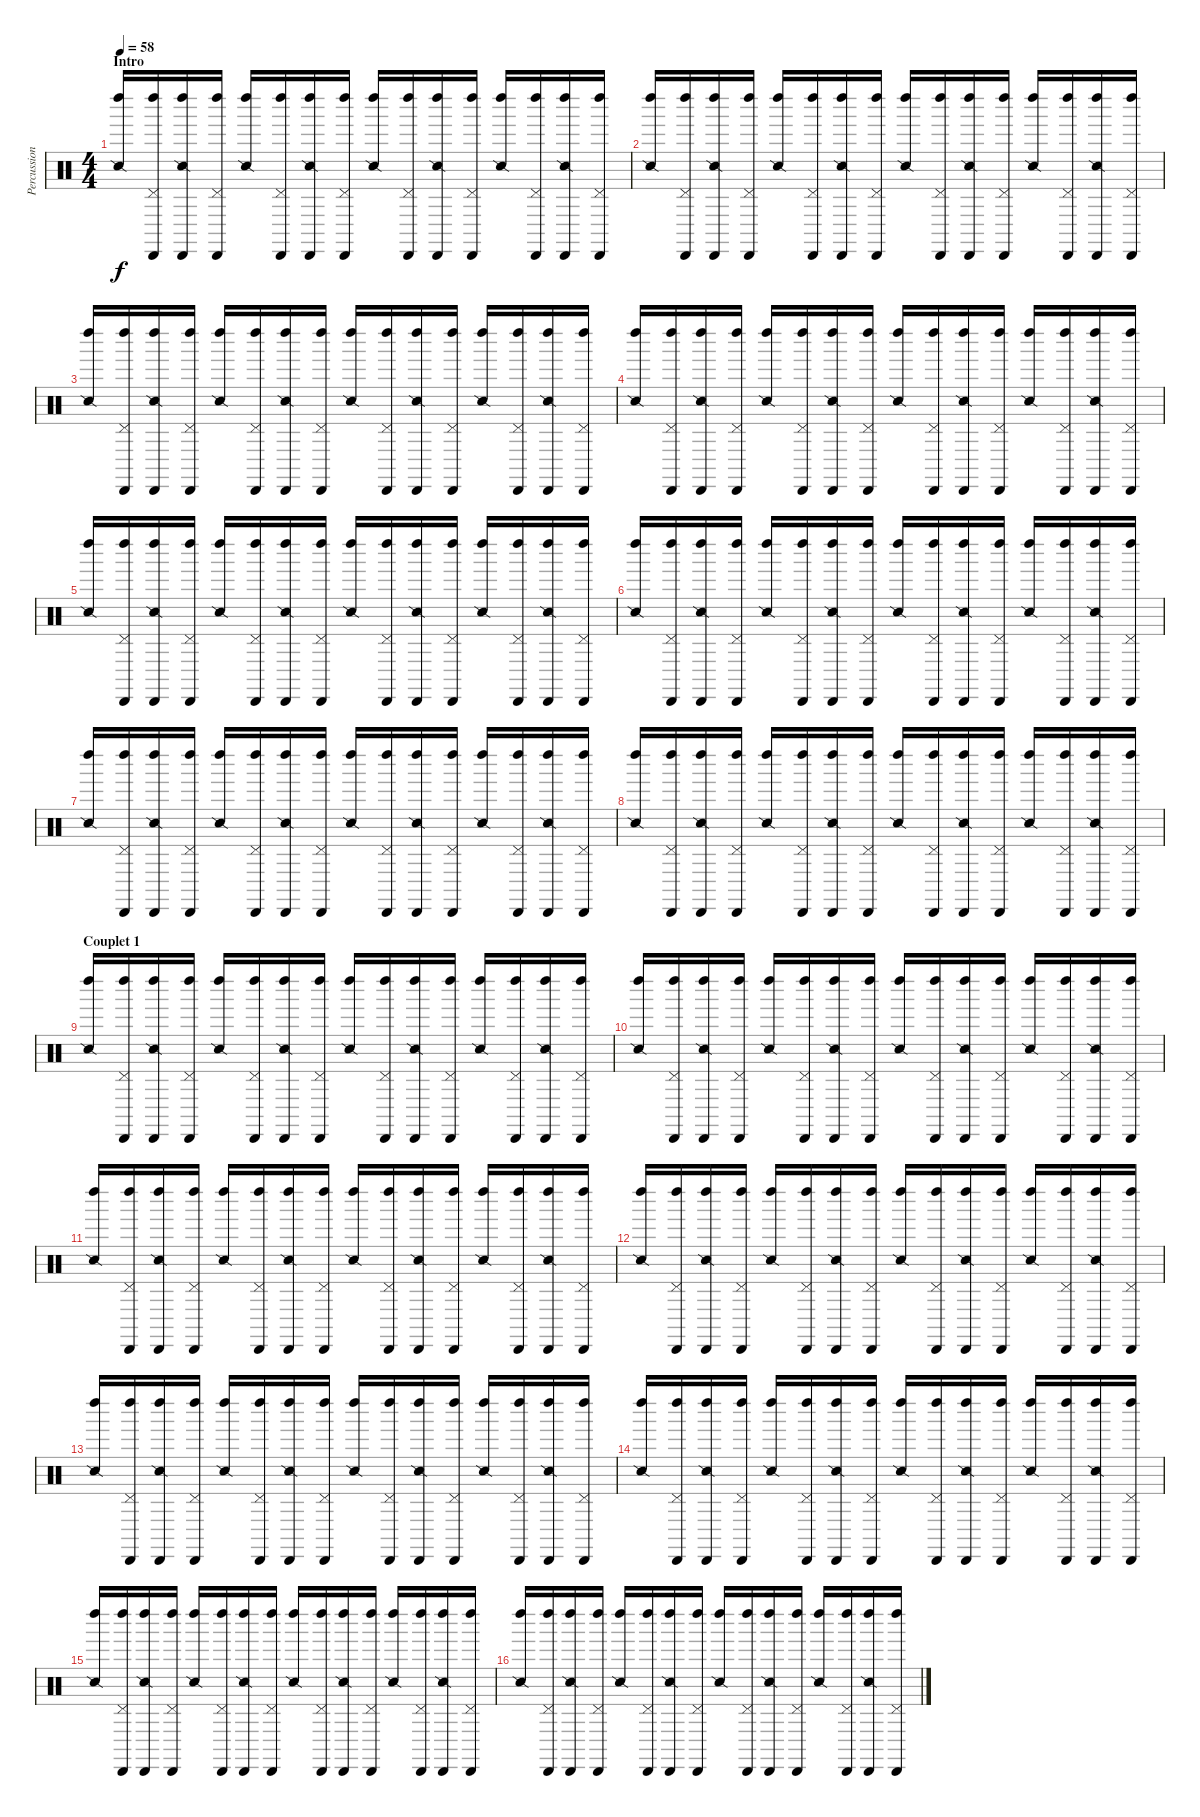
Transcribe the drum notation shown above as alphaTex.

\track ("Percussions" "Percussion") {instrument percussion}
\staff {score}
\articulation defaults
\ts (4 4)
\section ("" "Intro")
\tempo 58
\clef neutral
\ks c
("Snare (side stick) 2" "Left Maraca (hit)").16{dy f} ("Cabasa (hit)" "Pedal Hi-Hat (hit)" "Left Maraca (hit)").16 ("Cabasa (hit)" "Snare (side stick) 2" "Left Maraca (hit)").16 ("Cabasa (hit)" "Pedal Hi-Hat (hit)" "Left Maraca (hit)").16 ("Snare (side stick) 2" "Left Maraca (hit)").16 ("Cabasa (hit)" "Pedal Hi-Hat (hit)" "Left Maraca (hit)").16 ("Cabasa (hit)" "Snare (side stick) 2" "Left Maraca (hit)").16 ("Cabasa (hit)" "Pedal Hi-Hat (hit)" "Left Maraca (hit)").16 ("Snare (side stick) 2" "Left Maraca (hit)").16 ("Cabasa (hit)" "Pedal Hi-Hat (hit)" "Left Maraca (hit)").16 ("Cabasa (hit)" "Snare (side stick) 2" "Left Maraca (hit)").16 ("Cabasa (hit)" "Pedal Hi-Hat (hit)" "Left Maraca (hit)").16 ("Snare (side stick) 2" "Left Maraca (hit)").16 ("Cabasa (hit)" "Pedal Hi-Hat (hit)" "Left Maraca (hit)").16 ("Cabasa (hit)" "Snare (side stick) 2" "Left Maraca (hit)").16 ("Cabasa (hit)" "Pedal Hi-Hat (hit)" "Left Maraca (hit)").16 |
("Snare (side stick) 2" "Left Maraca (hit)").16 ("Cabasa (hit)" "Pedal Hi-Hat (hit)" "Left Maraca (hit)").16 ("Cabasa (hit)" "Snare (side stick) 2" "Left Maraca (hit)").16 ("Cabasa (hit)" "Pedal Hi-Hat (hit)" "Left Maraca (hit)").16 ("Snare (side stick) 2" "Left Maraca (hit)").16 ("Cabasa (hit)" "Pedal Hi-Hat (hit)" "Left Maraca (hit)").16 ("Cabasa (hit)" "Snare (side stick) 2" "Left Maraca (hit)").16 ("Cabasa (hit)" "Pedal Hi-Hat (hit)" "Left Maraca (hit)").16 ("Snare (side stick) 2" "Left Maraca (hit)").16 ("Cabasa (hit)" "Pedal Hi-Hat (hit)" "Left Maraca (hit)").16 ("Cabasa (hit)" "Snare (side stick) 2" "Left Maraca (hit)").16 ("Cabasa (hit)" "Pedal Hi-Hat (hit)" "Left Maraca (hit)").16 ("Snare (side stick) 2" "Left Maraca (hit)").16 ("Cabasa (hit)" "Pedal Hi-Hat (hit)" "Left Maraca (hit)").16 ("Cabasa (hit)" "Snare (side stick) 2" "Left Maraca (hit)").16 ("Cabasa (hit)" "Pedal Hi-Hat (hit)" "Left Maraca (hit)").16 |
("Snare (side stick) 2" "Left Maraca (hit)").16 ("Cabasa (hit)" "Pedal Hi-Hat (hit)" "Left Maraca (hit)").16 ("Cabasa (hit)" "Snare (side stick) 2" "Left Maraca (hit)").16 ("Cabasa (hit)" "Pedal Hi-Hat (hit)" "Left Maraca (hit)").16 ("Snare (side stick) 2" "Left Maraca (hit)").16 ("Cabasa (hit)" "Pedal Hi-Hat (hit)" "Left Maraca (hit)").16 ("Cabasa (hit)" "Snare (side stick) 2" "Left Maraca (hit)").16 ("Cabasa (hit)" "Pedal Hi-Hat (hit)" "Left Maraca (hit)").16 ("Snare (side stick) 2" "Left Maraca (hit)").16 ("Cabasa (hit)" "Pedal Hi-Hat (hit)" "Left Maraca (hit)").16 ("Cabasa (hit)" "Snare (side stick) 2" "Left Maraca (hit)").16 ("Cabasa (hit)" "Pedal Hi-Hat (hit)" "Left Maraca (hit)").16 ("Snare (side stick) 2" "Left Maraca (hit)").16 ("Cabasa (hit)" "Pedal Hi-Hat (hit)" "Left Maraca (hit)").16 ("Cabasa (hit)" "Snare (side stick) 2" "Left Maraca (hit)").16 ("Cabasa (hit)" "Pedal Hi-Hat (hit)" "Left Maraca (hit)").16 |
("Snare (side stick) 2" "Left Maraca (hit)").16 ("Cabasa (hit)" "Pedal Hi-Hat (hit)" "Left Maraca (hit)").16 ("Cabasa (hit)" "Snare (side stick) 2" "Left Maraca (hit)").16 ("Cabasa (hit)" "Pedal Hi-Hat (hit)" "Left Maraca (hit)").16 ("Snare (side stick) 2" "Left Maraca (hit)").16 ("Cabasa (hit)" "Pedal Hi-Hat (hit)" "Left Maraca (hit)").16 ("Cabasa (hit)" "Snare (side stick) 2" "Left Maraca (hit)").16 ("Cabasa (hit)" "Pedal Hi-Hat (hit)" "Left Maraca (hit)").16 ("Snare (side stick) 2" "Left Maraca (hit)").16 ("Cabasa (hit)" "Pedal Hi-Hat (hit)" "Left Maraca (hit)").16 ("Cabasa (hit)" "Snare (side stick) 2" "Left Maraca (hit)").16 ("Cabasa (hit)" "Pedal Hi-Hat (hit)" "Left Maraca (hit)").16 ("Snare (side stick) 2" "Left Maraca (hit)").16 ("Cabasa (hit)" "Pedal Hi-Hat (hit)" "Left Maraca (hit)").16 ("Cabasa (hit)" "Snare (side stick) 2" "Left Maraca (hit)").16 ("Cabasa (hit)" "Pedal Hi-Hat (hit)" "Left Maraca (hit)").16 |
("Snare (side stick) 2" "Left Maraca (hit)").16 ("Cabasa (hit)" "Pedal Hi-Hat (hit)" "Left Maraca (hit)").16 ("Cabasa (hit)" "Snare (side stick) 2" "Left Maraca (hit)").16 ("Cabasa (hit)" "Pedal Hi-Hat (hit)" "Left Maraca (hit)").16 ("Snare (side stick) 2" "Left Maraca (hit)").16 ("Cabasa (hit)" "Pedal Hi-Hat (hit)" "Left Maraca (hit)").16 ("Cabasa (hit)" "Snare (side stick) 2" "Left Maraca (hit)").16 ("Cabasa (hit)" "Pedal Hi-Hat (hit)" "Left Maraca (hit)").16 ("Snare (side stick) 2" "Left Maraca (hit)").16 ("Cabasa (hit)" "Pedal Hi-Hat (hit)" "Left Maraca (hit)").16 ("Cabasa (hit)" "Snare (side stick) 2" "Left Maraca (hit)").16 ("Cabasa (hit)" "Pedal Hi-Hat (hit)" "Left Maraca (hit)").16 ("Snare (side stick) 2" "Left Maraca (hit)").16 ("Cabasa (hit)" "Pedal Hi-Hat (hit)" "Left Maraca (hit)").16 ("Cabasa (hit)" "Snare (side stick) 2" "Left Maraca (hit)").16 ("Cabasa (hit)" "Pedal Hi-Hat (hit)" "Left Maraca (hit)").16 |
("Snare (side stick) 2" "Left Maraca (hit)").16 ("Cabasa (hit)" "Pedal Hi-Hat (hit)" "Left Maraca (hit)").16 ("Cabasa (hit)" "Snare (side stick) 2" "Left Maraca (hit)").16 ("Cabasa (hit)" "Pedal Hi-Hat (hit)" "Left Maraca (hit)").16 ("Snare (side stick) 2" "Left Maraca (hit)").16 ("Cabasa (hit)" "Pedal Hi-Hat (hit)" "Left Maraca (hit)").16 ("Cabasa (hit)" "Snare (side stick) 2" "Left Maraca (hit)").16 ("Cabasa (hit)" "Pedal Hi-Hat (hit)" "Left Maraca (hit)").16 ("Snare (side stick) 2" "Left Maraca (hit)").16 ("Cabasa (hit)" "Pedal Hi-Hat (hit)" "Left Maraca (hit)").16 ("Cabasa (hit)" "Snare (side stick) 2" "Left Maraca (hit)").16 ("Cabasa (hit)" "Pedal Hi-Hat (hit)" "Left Maraca (hit)").16 ("Snare (side stick) 2" "Left Maraca (hit)").16 ("Cabasa (hit)" "Pedal Hi-Hat (hit)" "Left Maraca (hit)").16 ("Cabasa (hit)" "Snare (side stick) 2" "Left Maraca (hit)").16 ("Cabasa (hit)" "Pedal Hi-Hat (hit)" "Left Maraca (hit)").16 |
("Snare (side stick) 2" "Left Maraca (hit)").16 ("Cabasa (hit)" "Pedal Hi-Hat (hit)" "Left Maraca (hit)").16 ("Cabasa (hit)" "Snare (side stick) 2" "Left Maraca (hit)").16 ("Cabasa (hit)" "Pedal Hi-Hat (hit)" "Left Maraca (hit)").16 ("Snare (side stick) 2" "Left Maraca (hit)").16 ("Cabasa (hit)" "Pedal Hi-Hat (hit)" "Left Maraca (hit)").16 ("Cabasa (hit)" "Snare (side stick) 2" "Left Maraca (hit)").16 ("Cabasa (hit)" "Pedal Hi-Hat (hit)" "Left Maraca (hit)").16 ("Snare (side stick) 2" "Left Maraca (hit)").16 ("Cabasa (hit)" "Pedal Hi-Hat (hit)" "Left Maraca (hit)").16 ("Cabasa (hit)" "Snare (side stick) 2" "Left Maraca (hit)").16 ("Cabasa (hit)" "Pedal Hi-Hat (hit)" "Left Maraca (hit)").16 ("Snare (side stick) 2" "Left Maraca (hit)").16 ("Cabasa (hit)" "Pedal Hi-Hat (hit)" "Left Maraca (hit)").16 ("Cabasa (hit)" "Snare (side stick) 2" "Left Maraca (hit)").16 ("Cabasa (hit)" "Pedal Hi-Hat (hit)" "Left Maraca (hit)").16 |
("Snare (side stick) 2" "Left Maraca (hit)").16 ("Cabasa (hit)" "Pedal Hi-Hat (hit)" "Left Maraca (hit)").16 ("Cabasa (hit)" "Snare (side stick) 2" "Left Maraca (hit)").16 ("Cabasa (hit)" "Pedal Hi-Hat (hit)" "Left Maraca (hit)").16 ("Snare (side stick) 2" "Left Maraca (hit)").16 ("Cabasa (hit)" "Pedal Hi-Hat (hit)" "Left Maraca (hit)").16 ("Cabasa (hit)" "Snare (side stick) 2" "Left Maraca (hit)").16 ("Cabasa (hit)" "Pedal Hi-Hat (hit)" "Left Maraca (hit)").16 ("Snare (side stick) 2" "Left Maraca (hit)").16 ("Cabasa (hit)" "Pedal Hi-Hat (hit)" "Left Maraca (hit)").16 ("Cabasa (hit)" "Snare (side stick) 2" "Left Maraca (hit)").16 ("Cabasa (hit)" "Pedal Hi-Hat (hit)" "Left Maraca (hit)").16 ("Snare (side stick) 2" "Left Maraca (hit)").16 ("Cabasa (hit)" "Pedal Hi-Hat (hit)" "Left Maraca (hit)").16 ("Cabasa (hit)" "Snare (side stick) 2" "Left Maraca (hit)").16 ("Cabasa (hit)" "Pedal Hi-Hat (hit)" "Left Maraca (hit)").16 |
\section ("" "Couplet 1")
("Snare (side stick) 2" "Left Maraca (hit)").16 ("Cabasa (hit)" "Pedal Hi-Hat (hit)" "Left Maraca (hit)").16 ("Cabasa (hit)" "Snare (side stick) 2" "Left Maraca (hit)").16 ("Cabasa (hit)" "Pedal Hi-Hat (hit)" "Left Maraca (hit)").16 ("Snare (side stick) 2" "Left Maraca (hit)").16 ("Cabasa (hit)" "Pedal Hi-Hat (hit)" "Left Maraca (hit)").16 ("Cabasa (hit)" "Snare (side stick) 2" "Left Maraca (hit)").16 ("Cabasa (hit)" "Pedal Hi-Hat (hit)" "Left Maraca (hit)").16 ("Snare (side stick) 2" "Left Maraca (hit)").16 ("Cabasa (hit)" "Pedal Hi-Hat (hit)" "Left Maraca (hit)").16 ("Cabasa (hit)" "Snare (side stick) 2" "Left Maraca (hit)").16 ("Cabasa (hit)" "Pedal Hi-Hat (hit)" "Left Maraca (hit)").16 ("Snare (side stick) 2" "Left Maraca (hit)").16 ("Cabasa (hit)" "Pedal Hi-Hat (hit)" "Left Maraca (hit)").16 ("Cabasa (hit)" "Snare (side stick) 2" "Left Maraca (hit)").16 ("Cabasa (hit)" "Pedal Hi-Hat (hit)" "Left Maraca (hit)").16 |
("Snare (side stick) 2" "Left Maraca (hit)").16 ("Cabasa (hit)" "Pedal Hi-Hat (hit)" "Left Maraca (hit)").16 ("Cabasa (hit)" "Snare (side stick) 2" "Left Maraca (hit)").16 ("Cabasa (hit)" "Pedal Hi-Hat (hit)" "Left Maraca (hit)").16 ("Snare (side stick) 2" "Left Maraca (hit)").16 ("Cabasa (hit)" "Pedal Hi-Hat (hit)" "Left Maraca (hit)").16 ("Cabasa (hit)" "Snare (side stick) 2" "Left Maraca (hit)").16 ("Cabasa (hit)" "Pedal Hi-Hat (hit)" "Left Maraca (hit)").16 ("Snare (side stick) 2" "Left Maraca (hit)").16 ("Cabasa (hit)" "Pedal Hi-Hat (hit)" "Left Maraca (hit)").16 ("Cabasa (hit)" "Snare (side stick) 2" "Left Maraca (hit)").16 ("Cabasa (hit)" "Pedal Hi-Hat (hit)" "Left Maraca (hit)").16 ("Snare (side stick) 2" "Left Maraca (hit)").16 ("Cabasa (hit)" "Pedal Hi-Hat (hit)" "Left Maraca (hit)").16 ("Cabasa (hit)" "Snare (side stick) 2" "Left Maraca (hit)").16 ("Cabasa (hit)" "Pedal Hi-Hat (hit)" "Left Maraca (hit)").16 |
("Snare (side stick) 2" "Left Maraca (hit)").16 ("Cabasa (hit)" "Pedal Hi-Hat (hit)" "Left Maraca (hit)").16 ("Cabasa (hit)" "Snare (side stick) 2" "Left Maraca (hit)").16 ("Cabasa (hit)" "Pedal Hi-Hat (hit)" "Left Maraca (hit)").16 ("Snare (side stick) 2" "Left Maraca (hit)").16 ("Cabasa (hit)" "Pedal Hi-Hat (hit)" "Left Maraca (hit)").16 ("Cabasa (hit)" "Snare (side stick) 2" "Left Maraca (hit)").16 ("Cabasa (hit)" "Pedal Hi-Hat (hit)" "Left Maraca (hit)").16 ("Snare (side stick) 2" "Left Maraca (hit)").16 ("Cabasa (hit)" "Pedal Hi-Hat (hit)" "Left Maraca (hit)").16 ("Cabasa (hit)" "Snare (side stick) 2" "Left Maraca (hit)").16 ("Cabasa (hit)" "Pedal Hi-Hat (hit)" "Left Maraca (hit)").16 ("Snare (side stick) 2" "Left Maraca (hit)").16 ("Cabasa (hit)" "Pedal Hi-Hat (hit)" "Left Maraca (hit)").16 ("Cabasa (hit)" "Snare (side stick) 2" "Left Maraca (hit)").16 ("Cabasa (hit)" "Pedal Hi-Hat (hit)" "Left Maraca (hit)").16 |
("Snare (side stick) 2" "Left Maraca (hit)").16 ("Cabasa (hit)" "Pedal Hi-Hat (hit)" "Left Maraca (hit)").16 ("Cabasa (hit)" "Snare (side stick) 2" "Left Maraca (hit)").16 ("Cabasa (hit)" "Pedal Hi-Hat (hit)" "Left Maraca (hit)").16 ("Snare (side stick) 2" "Left Maraca (hit)").16 ("Cabasa (hit)" "Pedal Hi-Hat (hit)" "Left Maraca (hit)").16 ("Cabasa (hit)" "Snare (side stick) 2" "Left Maraca (hit)").16 ("Cabasa (hit)" "Pedal Hi-Hat (hit)" "Left Maraca (hit)").16 ("Snare (side stick) 2" "Left Maraca (hit)").16 ("Cabasa (hit)" "Pedal Hi-Hat (hit)" "Left Maraca (hit)").16 ("Cabasa (hit)" "Snare (side stick) 2" "Left Maraca (hit)").16 ("Cabasa (hit)" "Pedal Hi-Hat (hit)" "Left Maraca (hit)").16 ("Snare (side stick) 2" "Left Maraca (hit)").16 ("Cabasa (hit)" "Pedal Hi-Hat (hit)" "Left Maraca (hit)").16 ("Cabasa (hit)" "Snare (side stick) 2" "Left Maraca (hit)").16 ("Cabasa (hit)" "Pedal Hi-Hat (hit)" "Left Maraca (hit)").16 |
("Snare (side stick) 2" "Left Maraca (hit)").16 ("Cabasa (hit)" "Pedal Hi-Hat (hit)" "Left Maraca (hit)").16 ("Cabasa (hit)" "Snare (side stick) 2" "Left Maraca (hit)").16 ("Cabasa (hit)" "Pedal Hi-Hat (hit)" "Left Maraca (hit)").16 ("Snare (side stick) 2" "Left Maraca (hit)").16 ("Cabasa (hit)" "Pedal Hi-Hat (hit)" "Left Maraca (hit)").16 ("Cabasa (hit)" "Snare (side stick) 2" "Left Maraca (hit)").16 ("Cabasa (hit)" "Pedal Hi-Hat (hit)" "Left Maraca (hit)").16 ("Snare (side stick) 2" "Left Maraca (hit)").16 ("Cabasa (hit)" "Pedal Hi-Hat (hit)" "Left Maraca (hit)").16 ("Cabasa (hit)" "Snare (side stick) 2" "Left Maraca (hit)").16 ("Cabasa (hit)" "Pedal Hi-Hat (hit)" "Left Maraca (hit)").16 ("Snare (side stick) 2" "Left Maraca (hit)").16 ("Cabasa (hit)" "Pedal Hi-Hat (hit)" "Left Maraca (hit)").16 ("Cabasa (hit)" "Snare (side stick) 2" "Left Maraca (hit)").16 ("Cabasa (hit)" "Pedal Hi-Hat (hit)" "Left Maraca (hit)").16 |
("Snare (side stick) 2" "Left Maraca (hit)").16 ("Cabasa (hit)" "Pedal Hi-Hat (hit)" "Left Maraca (hit)").16 ("Cabasa (hit)" "Snare (side stick) 2" "Left Maraca (hit)").16 ("Cabasa (hit)" "Pedal Hi-Hat (hit)" "Left Maraca (hit)").16 ("Snare (side stick) 2" "Left Maraca (hit)").16 ("Cabasa (hit)" "Pedal Hi-Hat (hit)" "Left Maraca (hit)").16 ("Cabasa (hit)" "Snare (side stick) 2" "Left Maraca (hit)").16 ("Cabasa (hit)" "Pedal Hi-Hat (hit)" "Left Maraca (hit)").16 ("Snare (side stick) 2" "Left Maraca (hit)").16 ("Cabasa (hit)" "Pedal Hi-Hat (hit)" "Left Maraca (hit)").16 ("Cabasa (hit)" "Snare (side stick) 2" "Left Maraca (hit)").16 ("Cabasa (hit)" "Pedal Hi-Hat (hit)" "Left Maraca (hit)").16 ("Snare (side stick) 2" "Left Maraca (hit)").16 ("Cabasa (hit)" "Pedal Hi-Hat (hit)" "Left Maraca (hit)").16 ("Cabasa (hit)" "Snare (side stick) 2" "Left Maraca (hit)").16 ("Cabasa (hit)" "Pedal Hi-Hat (hit)" "Left Maraca (hit)").16 |
("Snare (side stick) 2" "Left Maraca (hit)").16 ("Cabasa (hit)" "Pedal Hi-Hat (hit)" "Left Maraca (hit)").16 ("Cabasa (hit)" "Snare (side stick) 2" "Left Maraca (hit)").16 ("Cabasa (hit)" "Pedal Hi-Hat (hit)" "Left Maraca (hit)").16 ("Snare (side stick) 2" "Left Maraca (hit)").16 ("Cabasa (hit)" "Pedal Hi-Hat (hit)" "Left Maraca (hit)").16 ("Cabasa (hit)" "Snare (side stick) 2" "Left Maraca (hit)").16 ("Cabasa (hit)" "Pedal Hi-Hat (hit)" "Left Maraca (hit)").16 ("Snare (side stick) 2" "Left Maraca (hit)").16 ("Cabasa (hit)" "Pedal Hi-Hat (hit)" "Left Maraca (hit)").16 ("Cabasa (hit)" "Snare (side stick) 2" "Left Maraca (hit)").16 ("Cabasa (hit)" "Pedal Hi-Hat (hit)" "Left Maraca (hit)").16 ("Snare (side stick) 2" "Left Maraca (hit)").16 ("Cabasa (hit)" "Pedal Hi-Hat (hit)" "Left Maraca (hit)").16 ("Cabasa (hit)" "Snare (side stick) 2" "Left Maraca (hit)").16 ("Cabasa (hit)" "Pedal Hi-Hat (hit)" "Left Maraca (hit)").16 |
("Snare (side stick) 2" "Left Maraca (hit)").16 ("Cabasa (hit)" "Pedal Hi-Hat (hit)" "Left Maraca (hit)").16 ("Cabasa (hit)" "Snare (side stick) 2" "Left Maraca (hit)").16 ("Cabasa (hit)" "Pedal Hi-Hat (hit)" "Left Maraca (hit)").16 ("Snare (side stick) 2" "Left Maraca (hit)").16 ("Cabasa (hit)" "Pedal Hi-Hat (hit)" "Left Maraca (hit)").16 ("Cabasa (hit)" "Snare (side stick) 2" "Left Maraca (hit)").16 ("Cabasa (hit)" "Pedal Hi-Hat (hit)" "Left Maraca (hit)").16 ("Snare (side stick) 2" "Left Maraca (hit)").16 ("Cabasa (hit)" "Pedal Hi-Hat (hit)" "Left Maraca (hit)").16 ("Cabasa (hit)" "Snare (side stick) 2" "Left Maraca (hit)").16 ("Cabasa (hit)" "Pedal Hi-Hat (hit)" "Left Maraca (hit)").16 ("Snare (side stick) 2" "Left Maraca (hit)").16 ("Cabasa (hit)" "Pedal Hi-Hat (hit)" "Left Maraca (hit)").16 ("Cabasa (hit)" "Snare (side stick) 2" "Left Maraca (hit)").16 ("Cabasa (hit)" "Pedal Hi-Hat (hit)" "Left Maraca (hit)").16
